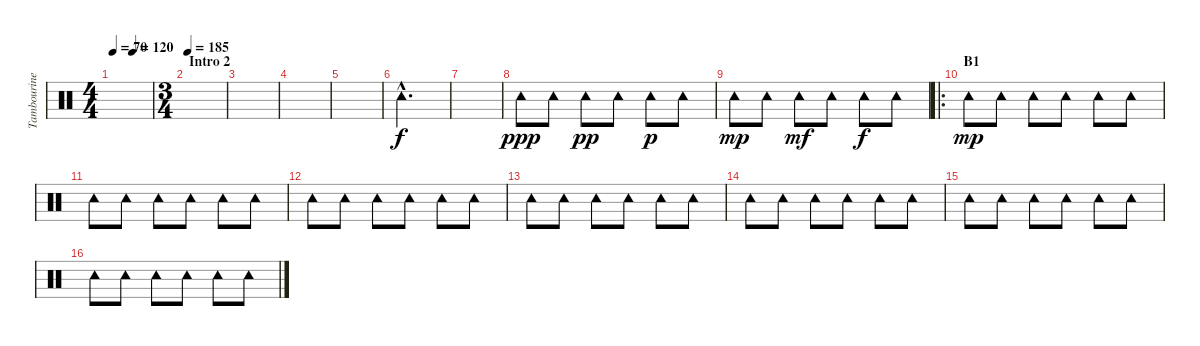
\track ("Tambourine" "Tambourine") {instrument percussion}
\staff {score}
\articulation defaults
\ts (4 4)
\tempo 70
\tempo (120 0.5)
\clef neutral
\ks c
|
\ts (3 4)
\section ("" "Intro 2")
\tempo 185
|
|
|
|
"Tambourine (hit)"{hac}.2{d} |
|
"Tambourine (hit)".8{dy ppp} "Tambourine (hit)".8 "Tambourine (hit)".8{dy pp} "Tambourine (hit)".8 "Tambourine (hit)".8{dy p} "Tambourine (hit)".8 |
"Tambourine (hit)".8{dy mp} "Tambourine (hit)".8 "Tambourine (hit)".8{dy mf} "Tambourine (hit)".8 "Tambourine (hit)".8{dy f} "Tambourine (hit)".8 |
\ro
\section ("" "B1")
"Tambourine (hit)".8{dy mp} "Tambourine (hit)".8 "Tambourine (hit)".8 "Tambourine (hit)".8 "Tambourine (hit)".8 "Tambourine (hit)".8 |
"Tambourine (hit)".8 "Tambourine (hit)".8 "Tambourine (hit)".8 "Tambourine (hit)".8 "Tambourine (hit)".8 "Tambourine (hit)".8 |
"Tambourine (hit)".8 "Tambourine (hit)".8 "Tambourine (hit)".8 "Tambourine (hit)".8 "Tambourine (hit)".8 "Tambourine (hit)".8 |
"Tambourine (hit)".8 "Tambourine (hit)".8 "Tambourine (hit)".8 "Tambourine (hit)".8 "Tambourine (hit)".8 "Tambourine (hit)".8 |
"Tambourine (hit)".8 "Tambourine (hit)".8 "Tambourine (hit)".8 "Tambourine (hit)".8 "Tambourine (hit)".8 "Tambourine (hit)".8 |
"Tambourine (hit)".8 "Tambourine (hit)".8 "Tambourine (hit)".8 "Tambourine (hit)".8 "Tambourine (hit)".8 "Tambourine (hit)".8 |
"Tambourine (hit)".8 "Tambourine (hit)".8 "Tambourine (hit)".8 "Tambourine (hit)".8 "Tambourine (hit)".8 "Tambourine (hit)".8
